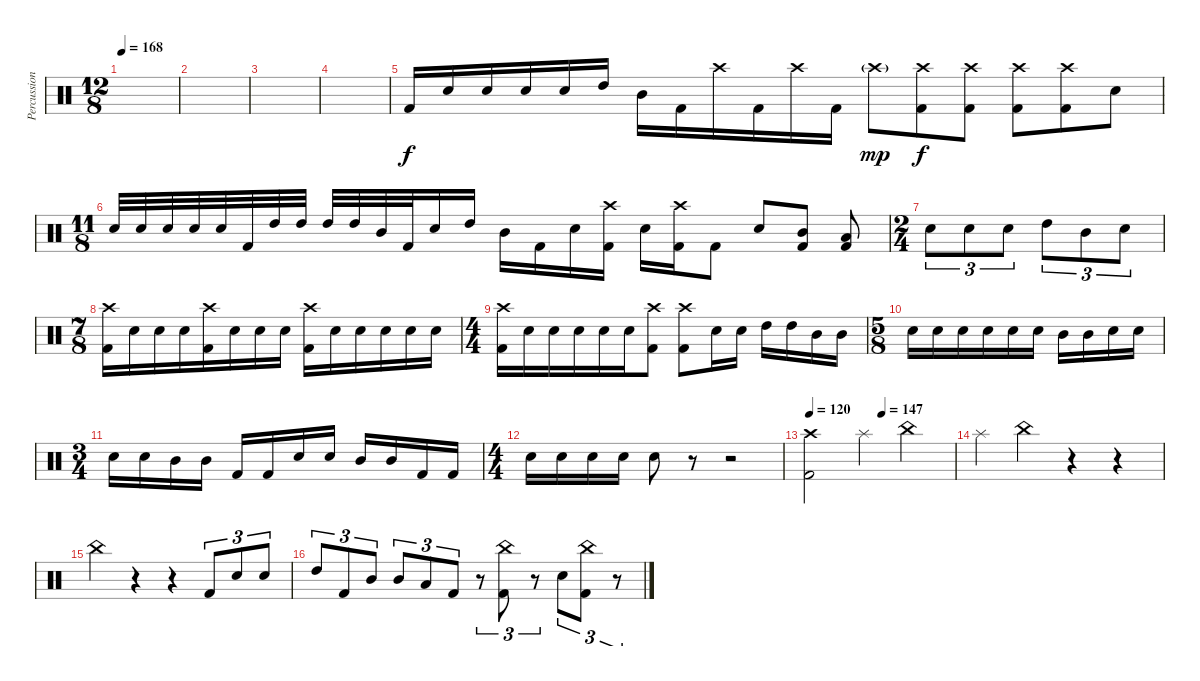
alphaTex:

\track ("Percussion" "Percussion") {instrument percussion}
\staff {score}
\articulation defaults
\ts (12 8)
\tempo 168
\clef neutral
\ks c
|
|
|
|
"Kick (hit) 2".16{volume 13} "Electric Snare (hit)".16 "Electric Snare (hit)".16 "Electric Snare (hit)".16 "Electric Snare (hit)".16 "High Tom (hit)".16 "Mid Tom (hit)".16 "Kick (hit) 2".16 "Crash high (hit)".16 "Kick (hit) 2".16 "Crash high (hit)".16 "Kick (hit) 2".16 "Crash high (hit)"{g}.8{dy mp} ("Crash high (hit)" "Kick (hit) 2").8{dy f} ("Crash high (hit)" "Kick (hit) 2").8 ("Crash high (hit)" "Kick (hit) 2").8 ("Crash high (hit)" "Kick (hit) 2").8 "Electric Snare (hit)".8 |
\ts (11 8)
"Electric Snare (hit)".32 "Electric Snare (hit)".32 "Electric Snare (hit)".32 "Electric Snare (hit)".32 "Electric Snare (hit)".32 "Kick (hit) 2".32 "High Tom (hit)".32 "High Tom (hit)".32 "High Tom (hit)".32 "High Tom (hit)".32 "Mid Tom (hit)".32 "Kick (hit) 2".32 "Electric Snare (hit)".16 "High Tom (hit)".16 "Mid Tom (hit)".16 "Kick (hit) 2".16 "Electric Snare (hit)".16 ("Crash high (hit)" "Kick (hit) 2").16 "Electric Snare (hit)".16 ("Crash high (hit)" "Kick (hit) 2").16 "Kick (hit) 2".8 "Electric Snare (hit)".8 ("Kick (hit) 2" "Mid Tom (hit)").8 ("Kick (hit) 2" "Low Tom (hit)").8 |
\ts (2 4)
"Electric Snare (hit)".8{tu (3 2)} "Electric Snare (hit)".8{tu (3 2)} "Electric Snare (hit)".8{tu (3 2)} "High Tom (hit)".8{tu (3 2)} "Mid Tom (hit)".8{tu (3 2)} "Electric Snare (hit)".8{tu (3 2)} |
\ts (7 8)
("Crash high (hit)" "Kick (hit) 2").16{beam merge} "Electric Snare (hit)".16{beam merge} "Electric Snare (hit)".16{beam merge} "Electric Snare (hit)".16 ("Crash high (hit)" "Kick (hit) 2").16 "Electric Snare (hit)".16{beam merge} "Electric Snare (hit)".16 "Electric Snare (hit)".16 ("Crash high (hit)" "Kick (hit) 2").16 "Electric Snare (hit)".16{beam merge} "Electric Snare (hit)".16 "Electric Snare (hit)".16{beam merge} "Electric Snare (hit)".16 "Electric Snare (hit)".16 |
\ts (4 4)
("Crash high (hit)" "Kick (hit) 2").16 "Electric Snare (hit)".16{beam merge} "Electric Snare (hit)".16 "Electric Snare (hit)".16{beam merge} "Electric Snare (hit)".16 "Electric Snare (hit)".16 ("Crash high (hit)" "Kick (hit) 2").8 ("Crash high (hit)" "Kick (hit) 2").8 "Electric Snare (hit)".16 "Electric Snare (hit)".16 "High Tom (hit)".16 "High Tom (hit)".16 "Mid Tom (hit)".16 "Mid Tom (hit)".16 |
\ts (5 8)
"Electric Snare (hit)".16 "Electric Snare (hit)".16 "Electric Snare (hit)".16 "Electric Snare (hit)".16 "Electric Snare (hit)".16 "Electric Snare (hit)".16 "Mid Tom (hit)".16 "Mid Tom (hit)".16 "Electric Snare (hit)".16 "Electric Snare (hit)".16 |
\ts (3 4)
"Electric Snare (hit)".16 "Electric Snare (hit)".16 "Mid Tom (hit)".16 "Mid Tom (hit)".16 "Kick (hit) 2".16 "Kick (hit) 2".16 "Electric Snare (hit)".16 "Electric Snare (hit)".16 "Mid Tom (hit)".16 "Mid Tom (hit)".16 "Kick (hit) 2".16 "Kick (hit) 2".16 |
\ts (4 4)
"Electric Snare (hit)".16 "Electric Snare (hit)".16 "Electric Snare (hit)".16 "Electric Snare (hit)".16 "Electric Snare (hit)".8 r.8 r.2 |
\tempo 120
\tempo (147 0.5)
("Crash high (hit)" "Kick (hit) 2").2{volume 16} "Splash (hit)".4 "China (hit)".4 |
"Splash (hit)".4 "China (hit)".4 r.4 r.4 |
"China (hit)".4 r.4 r.4 "Kick (hit) 2".8{tu (3 2)} "Electric Snare (hit)".8{tu (3 2)} "Electric Snare (hit)".8{tu (3 2)} |
"High Tom (hit)".8{tu (3 2)} "Kick (hit) 2".8{tu (3 2)} "Mid Tom (hit)".8{tu (3 2)} "Mid Tom (hit)".8{tu (3 2)} "Low Tom (hit)".8{tu (3 2)} "Kick (hit) 2".8{tu (3 2)} r.8{tu (3 2)} ("China (hit)" "Kick (hit) 2").8{tu (3 2)} r.8{tu (3 2)} "Electric Snare (hit)".8{tu (3 2)} ("China (hit)" "Kick (hit) 2").8{tu (3 2)} r.8{tu (3 2)}
